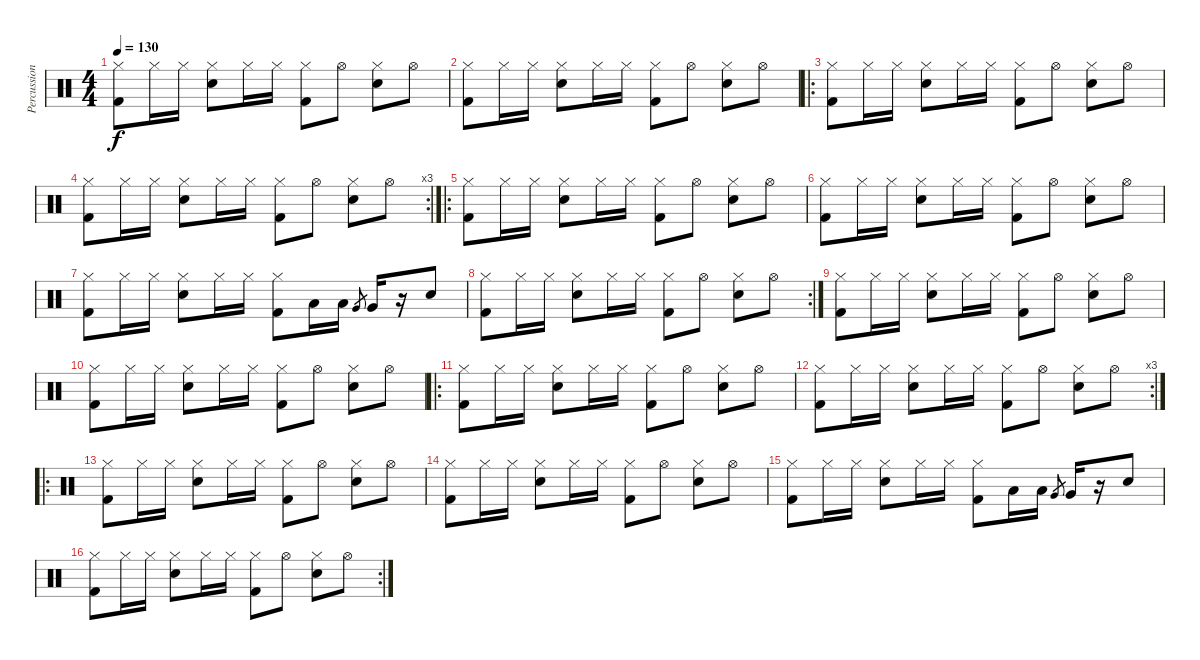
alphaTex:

\track ("Percussions" "Percussion") {instrument percussion}
\staff {score}
\articulation defaults
\ts (4 4)
\tempo 130
\clef neutral
\ks c
("Hi-Hat (closed)" "Kick (hit) 2").8{dy f} "Hi-Hat (closed)".16 "Hi-Hat (closed)".16 ("Hi-Hat (closed)" "Electric Snare (hit)").8 "Hi-Hat (closed)".16 "Hi-Hat (closed)".16 ("Hi-Hat (closed)" "Kick (hit) 2").8 "Hi-Hat (open)".8 ("Hi-Hat (closed)" "Electric Snare (hit)").8 "Hi-Hat (open)".8 |
("Hi-Hat (closed)" "Kick (hit) 2").8 "Hi-Hat (closed)".16 "Hi-Hat (closed)".16 ("Hi-Hat (closed)" "Electric Snare (hit)").8 "Hi-Hat (closed)".16 "Hi-Hat (closed)".16 ("Hi-Hat (closed)" "Kick (hit) 2").8 "Hi-Hat (open)".8 ("Hi-Hat (closed)" "Electric Snare (hit)").8 "Hi-Hat (open)".8 |
\ro
("Hi-Hat (closed)" "Kick (hit) 2").8 "Hi-Hat (closed)".16 "Hi-Hat (closed)".16 ("Hi-Hat (closed)" "Electric Snare (hit)").8 "Hi-Hat (closed)".16 "Hi-Hat (closed)".16 ("Hi-Hat (closed)" "Kick (hit) 2").8 "Hi-Hat (open)".8 ("Hi-Hat (closed)" "Electric Snare (hit)").8 "Hi-Hat (open)".8 |
\rc 3
("Hi-Hat (closed)" "Kick (hit) 2").8 "Hi-Hat (closed)".16 "Hi-Hat (closed)".16 ("Hi-Hat (closed)" "Electric Snare (hit)").8 "Hi-Hat (closed)".16 "Hi-Hat (closed)".16 ("Hi-Hat (closed)" "Kick (hit) 2").8 "Hi-Hat (open)".8 ("Hi-Hat (closed)" "Electric Snare (hit)").8 "Hi-Hat (open)".8 |
\ro
("Hi-Hat (closed)" "Kick (hit) 2").8 "Hi-Hat (closed)".16 "Hi-Hat (closed)".16 ("Hi-Hat (closed)" "Electric Snare (hit)").8 "Hi-Hat (closed)".16 "Hi-Hat (closed)".16 ("Hi-Hat (closed)" "Kick (hit) 2").8 "Hi-Hat (open)".8 ("Hi-Hat (closed)" "Electric Snare (hit)").8 "Hi-Hat (open)".8 |
("Hi-Hat (closed)" "Kick (hit) 2").8 "Hi-Hat (closed)".16 "Hi-Hat (closed)".16 ("Hi-Hat (closed)" "Electric Snare (hit)").8 "Hi-Hat (closed)".16 "Hi-Hat (closed)".16 ("Hi-Hat (closed)" "Kick (hit) 2").8 "Hi-Hat (open)".8 ("Hi-Hat (closed)" "Electric Snare (hit)").8 "Hi-Hat (open)".8 |
("Hi-Hat (closed)" "Kick (hit) 2").8 "Hi-Hat (closed)".16 "Hi-Hat (closed)".16 ("Hi-Hat (closed)" "Electric Snare (hit)").8 "Hi-Hat (closed)".16 "Hi-Hat (closed)".16 ("Hi-Hat (closed)" "Kick (hit) 2").8 "Low Tom (hit)".16 "Low Tom (hit)".16 "Very Low Tom (hit)".8{gr} "Very Low Tom (hit)".16 r.16 "Electric Snare (hit)".8 |
\rc 2
("Hi-Hat (closed)" "Kick (hit) 2").8 "Hi-Hat (closed)".16 "Hi-Hat (closed)".16 ("Hi-Hat (closed)" "Electric Snare (hit)").8 "Hi-Hat (closed)".16 "Hi-Hat (closed)".16 ("Hi-Hat (closed)" "Kick (hit) 2").8 "Hi-Hat (open)".8 ("Hi-Hat (closed)" "Electric Snare (hit)").8 "Hi-Hat (open)".8 |
("Hi-Hat (closed)" "Kick (hit) 2").8 "Hi-Hat (closed)".16 "Hi-Hat (closed)".16 ("Hi-Hat (closed)" "Electric Snare (hit)").8 "Hi-Hat (closed)".16 "Hi-Hat (closed)".16 ("Hi-Hat (closed)" "Kick (hit) 2").8 "Hi-Hat (open)".8 ("Hi-Hat (closed)" "Electric Snare (hit)").8 "Hi-Hat (open)".8 |
("Hi-Hat (closed)" "Kick (hit) 2").8 "Hi-Hat (closed)".16 "Hi-Hat (closed)".16 ("Hi-Hat (closed)" "Electric Snare (hit)").8 "Hi-Hat (closed)".16 "Hi-Hat (closed)".16 ("Hi-Hat (closed)" "Kick (hit) 2").8 "Hi-Hat (open)".8 ("Hi-Hat (closed)" "Electric Snare (hit)").8 "Hi-Hat (open)".8 |
\ro
("Hi-Hat (closed)" "Kick (hit) 2").8 "Hi-Hat (closed)".16 "Hi-Hat (closed)".16 ("Hi-Hat (closed)" "Electric Snare (hit)").8 "Hi-Hat (closed)".16 "Hi-Hat (closed)".16 ("Hi-Hat (closed)" "Kick (hit) 2").8 "Hi-Hat (open)".8 ("Hi-Hat (closed)" "Electric Snare (hit)").8 "Hi-Hat (open)".8 |
\rc 3
("Hi-Hat (closed)" "Kick (hit) 2").8 "Hi-Hat (closed)".16 "Hi-Hat (closed)".16 ("Hi-Hat (closed)" "Electric Snare (hit)").8 "Hi-Hat (closed)".16 "Hi-Hat (closed)".16 ("Hi-Hat (closed)" "Kick (hit) 2").8 "Hi-Hat (open)".8 ("Hi-Hat (closed)" "Electric Snare (hit)").8 "Hi-Hat (open)".8 |
\ro
("Hi-Hat (closed)" "Kick (hit) 2").8 "Hi-Hat (closed)".16 "Hi-Hat (closed)".16 ("Hi-Hat (closed)" "Electric Snare (hit)").8 "Hi-Hat (closed)".16 "Hi-Hat (closed)".16 ("Hi-Hat (closed)" "Kick (hit) 2").8 "Hi-Hat (open)".8 ("Hi-Hat (closed)" "Electric Snare (hit)").8 "Hi-Hat (open)".8 |
("Hi-Hat (closed)" "Kick (hit) 2").8 "Hi-Hat (closed)".16 "Hi-Hat (closed)".16 ("Hi-Hat (closed)" "Electric Snare (hit)").8 "Hi-Hat (closed)".16 "Hi-Hat (closed)".16 ("Hi-Hat (closed)" "Kick (hit) 2").8 "Hi-Hat (open)".8 ("Hi-Hat (closed)" "Electric Snare (hit)").8 "Hi-Hat (open)".8 |
("Hi-Hat (closed)" "Kick (hit) 2").8 "Hi-Hat (closed)".16 "Hi-Hat (closed)".16 ("Hi-Hat (closed)" "Electric Snare (hit)").8 "Hi-Hat (closed)".16 "Hi-Hat (closed)".16 ("Hi-Hat (closed)" "Kick (hit) 2").8 "Low Tom (hit)".16 "Low Tom (hit)".16 "Very Low Tom (hit)".8{gr} "Very Low Tom (hit)".16 r.16 "Electric Snare (hit)".8 |
\rc 2
("Hi-Hat (closed)" "Kick (hit) 2").8 "Hi-Hat (closed)".16 "Hi-Hat (closed)".16 ("Hi-Hat (closed)" "Electric Snare (hit)").8 "Hi-Hat (closed)".16 "Hi-Hat (closed)".16 ("Hi-Hat (closed)" "Kick (hit) 2").8 "Hi-Hat (open)".8 ("Hi-Hat (closed)" "Electric Snare (hit)").8 "Hi-Hat (open)".8
